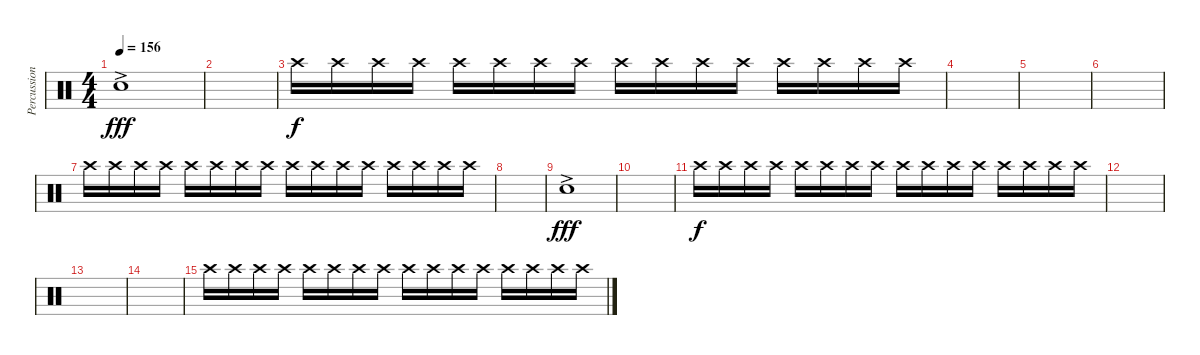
\track ("Percussion" "Percussion") {instrument percussion}
\staff {score}
\articulation defaults
\ts (4 4)
\tempo 156
\clef neutral
\ks c "Hand Clap (hit)"{ac}.1{dy fff volume 16}
|
|
"Crash high (hit)".16{dy f volume 6} "Crash high (hit)".16 "Crash high (hit)".16 "Crash high (hit)".16 "Crash high (hit)".16 "Crash high (hit)".16 "Crash high (hit)".16 "Crash high (hit)".16 "Crash high (hit)".16 "Crash high (hit)".16 "Crash high (hit)".16 "Crash high (hit)".16 "Crash high (hit)".16 "Crash high (hit)".16 "Crash high (hit)".16 "Crash high (hit)".16 |
|
|
|
"Crash high (hit)".16 "Crash high (hit)".16 "Crash high (hit)".16 "Crash high (hit)".16 "Crash high (hit)".16 "Crash high (hit)".16 "Crash high (hit)".16 "Crash high (hit)".16 "Crash high (hit)".16 "Crash high (hit)".16 "Crash high (hit)".16 "Crash high (hit)".16 "Crash high (hit)".16 "Crash high (hit)".16 "Crash high (hit)".16 "Crash high (hit)".16 |
|
"Hand Clap (hit)"{ac}.1{dy fff volume 16} |
|
"Crash high (hit)".16{dy f volume 6} "Crash high (hit)".16 "Crash high (hit)".16 "Crash high (hit)".16 "Crash high (hit)".16 "Crash high (hit)".16 "Crash high (hit)".16 "Crash high (hit)".16 "Crash high (hit)".16 "Crash high (hit)".16 "Crash high (hit)".16 "Crash high (hit)".16 "Crash high (hit)".16 "Crash high (hit)".16 "Crash high (hit)".16 "Crash high (hit)".16 |
|
|
|
"Crash high (hit)".16 "Crash high (hit)".16 "Crash high (hit)".16 "Crash high (hit)".16 "Crash high (hit)".16 "Crash high (hit)".16 "Crash high (hit)".16 "Crash high (hit)".16 "Crash high (hit)".16 "Crash high (hit)".16 "Crash high (hit)".16 "Crash high (hit)".16 "Crash high (hit)".16 "Crash high (hit)".16 "Crash high (hit)".16 "Crash high (hit)".16
